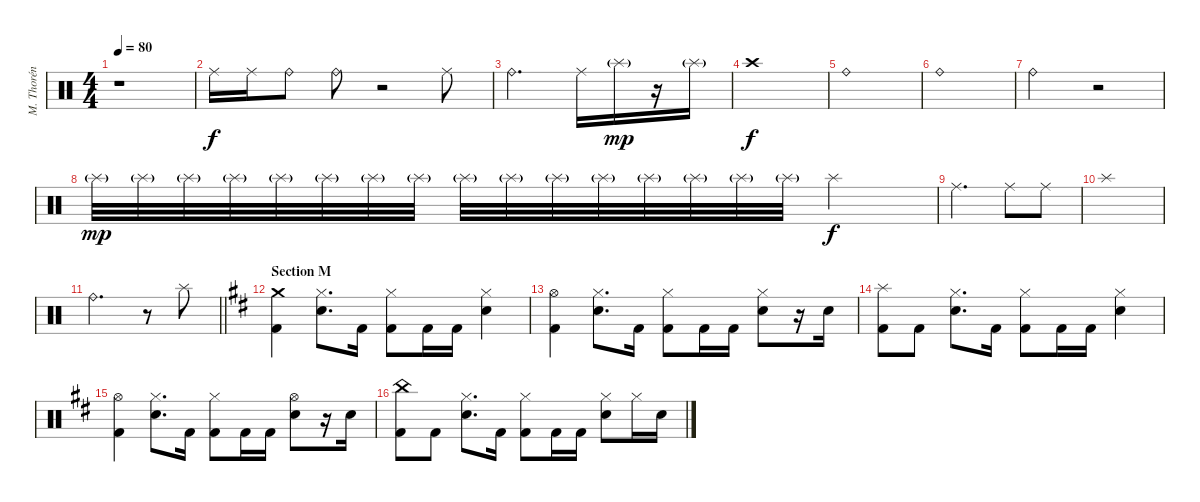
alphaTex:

\track ("M. Thorén (Drums)" "M. Thorén ") {instrument percussion}
\staff {score}
\articulation defaults
\ts (4 4)
\tempo 80
\clef neutral
\ks aminor
r.1{dy f} |
"Ride (middle)".16{volume 8} "Ride (middle)".16 "Ride (bell)".8 "Ride (bell)".8 r.2 "Ride (middle)".8 |
"Ride (bell)".2{d} "Ride (middle)".16 "Splash (hit)"{g}.16{dy mp} r.16 "Splash (hit)"{g}.16 |
"Crash high (hit)".1{dy f} |
"Ride (bell)".1 |
"Ride (bell)".1 |
"Ride (bell)".2 r.2{volume 0} |
"Splash (hit)"{g}.32{dy mp volume 8} "Splash (hit)"{g}.32 "Splash (hit)"{g}.32 "Splash (hit)"{g}.32 "Splash (hit)"{g}.32 "Splash (hit)"{g}.32 "Splash (hit)"{g}.32 "Splash (hit)"{g}.32 "Splash (hit)"{g}.32 "Splash (hit)"{g}.32 "Splash (hit)"{g}.32 "Splash (hit)"{g}.32 "Splash (hit)"{g}.32 "Splash (hit)"{g}.32 "Splash (hit)"{g}.32 "Splash (hit)"{g}.32 "Splash (hit)".2{dy f} |
"Ride (middle)".2{d} "Ride (middle)".8 "Ride (middle)".8 |
"Splash (hit)".1 |
\barLineRight lightlight "Ride (bell)".2{d}
r.8 "Splash (hit)".8 |
\section ("" "Section M")
\ks bminor
("Crash medium (hit)" "Kick (hit) 2").4{volume 12} ("Hi-Hat (closed)" "Electric Snare (hit)").8{d} "Kick (hit) 2".16 ("Hi-Hat (closed)" "Kick (hit) 2").8 "Kick (hit) 2".16 "Kick (hit) 2".16 ("Hi-Hat (closed)" "Electric Snare (hit)").4 |
("Hi-Hat (open)" "Kick (hit) 2").4 ("Hi-Hat (closed)" "Electric Snare (hit)").8{d} "Kick (hit) 2".16 ("Hi-Hat (closed)" "Kick (hit) 2").8 "Kick (hit) 2".16 "Kick (hit) 2".16 ("Hi-Hat (closed)" "Electric Snare (hit)").8 r.16 "Electric Snare (hit)".16 |
("Splash (hit)" "Kick (hit) 2").8 "Kick (hit) 2".8 ("Hi-Hat (closed)" "Electric Snare (hit)").8{d} "Kick (hit) 2".16 ("Hi-Hat (closed)" "Kick (hit) 2").8 "Kick (hit) 2".16 "Kick (hit) 2".16 ("Hi-Hat (closed)" "Electric Snare (hit)").4 |
("Hi-Hat (open)" "Kick (hit) 2").4 ("Hi-Hat (closed)" "Electric Snare (hit)").8{d} "Kick (hit) 2".16 ("Hi-Hat (closed)" "Kick (hit) 2").8 "Kick (hit) 2".16 "Kick (hit) 2".16 ("Hi-Hat (open)" "Electric Snare (hit)").8 r.16 "Electric Snare (hit)".16 |
("China (hit)" "Kick (hit) 2").8 "Kick (hit) 2".8 ("Hi-Hat (closed)" "Electric Snare (hit)").8{d} "Kick (hit) 2".16 ("Hi-Hat (closed)" "Kick (hit) 2").8 "Kick (hit) 2".16 "Kick (hit) 2".16 ("Hi-Hat (closed)" "Electric Snare (hit)").8 "Hi-Hat (closed)".16 "Electric Snare (hit)".16
